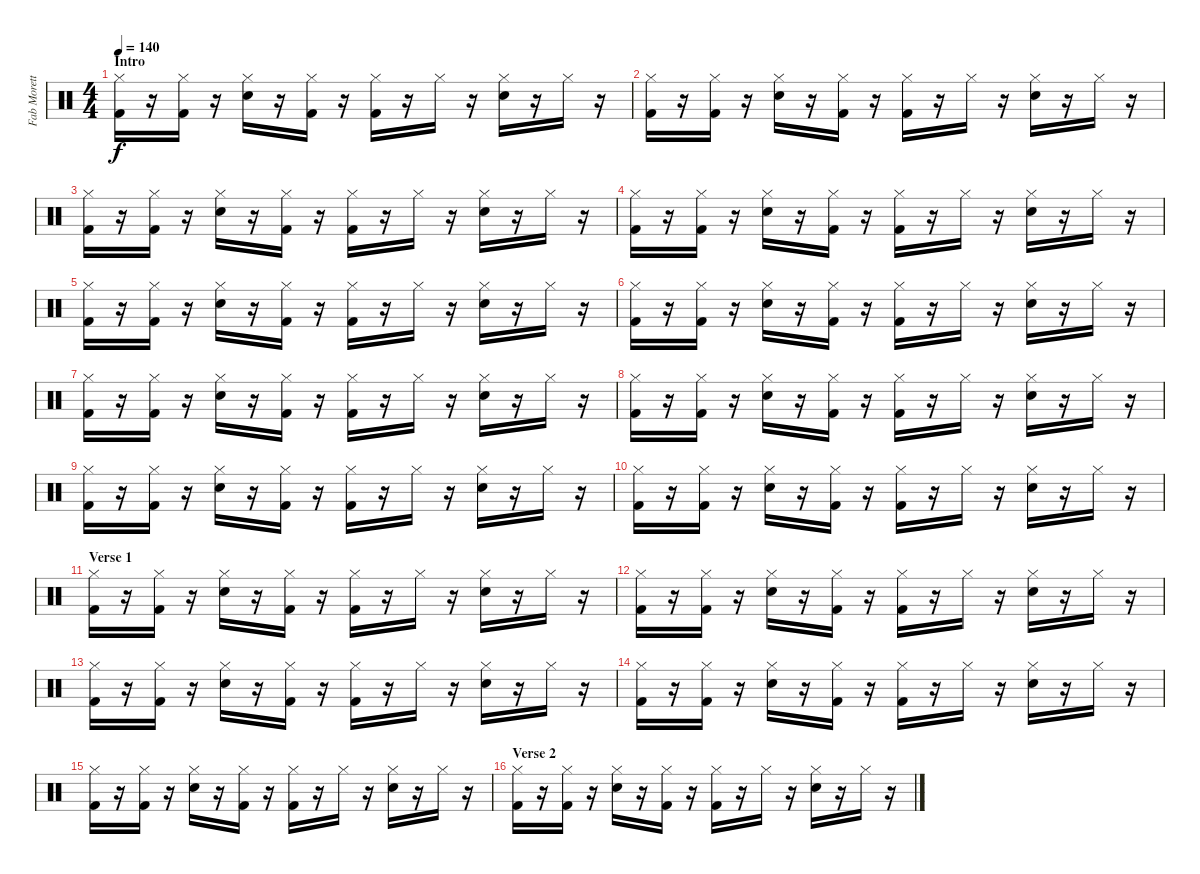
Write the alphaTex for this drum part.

\track ("Fab Moretti - Drums" "Fab Morett") {instrument percussion}
\staff {score}
\articulation defaults
\ts (4 4)
\section ("" "Intro")
\tempo 140
\clef neutral
\ks c
("Hi-Hat (closed)" "Kick (hit) 2").16{dy f} r.16 ("Hi-Hat (closed)" "Kick (hit) 2").16 r.16 ("Hi-Hat (closed)" "Snare (hit) 2").16 r.16 ("Hi-Hat (closed)" "Kick (hit) 2").16 r.16 ("Hi-Hat (closed)" "Kick (hit) 2").16 r.16 "Hi-Hat (closed)".16 r.16 ("Hi-Hat (closed)" "Snare (hit) 2").16 r.16 "Hi-Hat (closed)".16 r.16 |
("Hi-Hat (closed)" "Kick (hit) 2").16 r.16 ("Hi-Hat (closed)" "Kick (hit) 2").16 r.16 ("Hi-Hat (closed)" "Snare (hit) 2").16 r.16 ("Hi-Hat (closed)" "Kick (hit) 2").16 r.16 ("Hi-Hat (closed)" "Kick (hit) 2").16 r.16 "Hi-Hat (closed)".16 r.16 ("Hi-Hat (closed)" "Snare (hit) 2").16 r.16 "Hi-Hat (closed)".16 r.16 |
("Hi-Hat (closed)" "Kick (hit) 2").16 r.16 ("Hi-Hat (closed)" "Kick (hit) 2").16 r.16 ("Hi-Hat (closed)" "Snare (hit) 2").16 r.16 ("Hi-Hat (closed)" "Kick (hit) 2").16 r.16 ("Hi-Hat (closed)" "Kick (hit) 2").16 r.16 "Hi-Hat (closed)".16 r.16 ("Hi-Hat (closed)" "Snare (hit) 2").16 r.16 "Hi-Hat (closed)".16 r.16 |
("Hi-Hat (closed)" "Kick (hit) 2").16 r.16 ("Hi-Hat (closed)" "Kick (hit) 2").16 r.16 ("Hi-Hat (closed)" "Snare (hit) 2").16 r.16 ("Hi-Hat (closed)" "Kick (hit) 2").16 r.16 ("Hi-Hat (closed)" "Kick (hit) 2").16 r.16 "Hi-Hat (closed)".16 r.16 ("Hi-Hat (closed)" "Snare (hit) 2").16 r.16 "Hi-Hat (closed)".16 r.16 |
("Hi-Hat (closed)" "Kick (hit) 2").16 r.16 ("Hi-Hat (closed)" "Kick (hit) 2").16 r.16 ("Hi-Hat (closed)" "Snare (hit) 2").16 r.16 ("Hi-Hat (closed)" "Kick (hit) 2").16 r.16 ("Hi-Hat (closed)" "Kick (hit) 2").16 r.16 "Hi-Hat (closed)".16 r.16 ("Hi-Hat (closed)" "Snare (hit) 2").16 r.16 "Hi-Hat (closed)".16 r.16 |
("Hi-Hat (closed)" "Kick (hit) 2").16 r.16 ("Hi-Hat (closed)" "Kick (hit) 2").16 r.16 ("Hi-Hat (closed)" "Snare (hit) 2").16 r.16 ("Hi-Hat (closed)" "Kick (hit) 2").16 r.16 ("Hi-Hat (closed)" "Kick (hit) 2").16 r.16 "Hi-Hat (closed)".16 r.16 ("Hi-Hat (closed)" "Snare (hit) 2").16 r.16 "Hi-Hat (closed)".16 r.16 |
("Hi-Hat (closed)" "Kick (hit) 2").16 r.16 ("Hi-Hat (closed)" "Kick (hit) 2").16 r.16 ("Hi-Hat (closed)" "Snare (hit) 2").16 r.16 ("Hi-Hat (closed)" "Kick (hit) 2").16 r.16 ("Hi-Hat (closed)" "Kick (hit) 2").16 r.16 "Hi-Hat (closed)".16 r.16 ("Hi-Hat (closed)" "Snare (hit) 2").16 r.16 "Hi-Hat (closed)".16 r.16 |
("Hi-Hat (closed)" "Kick (hit) 2").16 r.16 ("Hi-Hat (closed)" "Kick (hit) 2").16 r.16 ("Hi-Hat (closed)" "Snare (hit) 2").16 r.16 ("Hi-Hat (closed)" "Kick (hit) 2").16 r.16 ("Hi-Hat (closed)" "Kick (hit) 2").16 r.16 "Hi-Hat (closed)".16 r.16 ("Hi-Hat (closed)" "Snare (hit) 2").16 r.16 "Hi-Hat (closed)".16 r.16 |
("Hi-Hat (closed)" "Kick (hit) 2").16 r.16 ("Hi-Hat (closed)" "Kick (hit) 2").16 r.16 ("Hi-Hat (closed)" "Snare (hit) 2").16 r.16 ("Hi-Hat (closed)" "Kick (hit) 2").16 r.16 ("Hi-Hat (closed)" "Kick (hit) 2").16 r.16 "Hi-Hat (closed)".16 r.16 ("Hi-Hat (closed)" "Snare (hit) 2").16 r.16 "Hi-Hat (closed)".16 r.16 |
("Hi-Hat (closed)" "Kick (hit) 2").16 r.16 ("Hi-Hat (closed)" "Kick (hit) 2").16 r.16 ("Hi-Hat (closed)" "Snare (hit) 2").16 r.16 ("Hi-Hat (closed)" "Kick (hit) 2").16 r.16 ("Hi-Hat (closed)" "Kick (hit) 2").16 r.16 "Hi-Hat (closed)".16 r.16 ("Hi-Hat (closed)" "Snare (hit) 2").16 r.16 "Hi-Hat (closed)".16 r.16 |
\section ("" "Verse 1")
("Hi-Hat (closed)" "Kick (hit) 2").16 r.16 ("Hi-Hat (closed)" "Kick (hit) 2").16 r.16 ("Hi-Hat (closed)" "Snare (hit) 2").16 r.16 ("Hi-Hat (closed)" "Kick (hit) 2").16 r.16 ("Hi-Hat (closed)" "Kick (hit) 2").16 r.16 "Hi-Hat (closed)".16 r.16 ("Hi-Hat (closed)" "Snare (hit) 2").16 r.16 "Hi-Hat (closed)".16 r.16 |
("Hi-Hat (closed)" "Kick (hit) 2").16 r.16 ("Hi-Hat (closed)" "Kick (hit) 2").16 r.16 ("Hi-Hat (closed)" "Snare (hit) 2").16 r.16 ("Hi-Hat (closed)" "Kick (hit) 2").16 r.16 ("Hi-Hat (closed)" "Kick (hit) 2").16 r.16 "Hi-Hat (closed)".16 r.16 ("Hi-Hat (closed)" "Snare (hit) 2").16 r.16 "Hi-Hat (closed)".16 r.16 |
("Hi-Hat (closed)" "Kick (hit) 2").16 r.16 ("Hi-Hat (closed)" "Kick (hit) 2").16 r.16 ("Hi-Hat (closed)" "Snare (hit) 2").16 r.16 ("Hi-Hat (closed)" "Kick (hit) 2").16 r.16 ("Hi-Hat (closed)" "Kick (hit) 2").16 r.16 "Hi-Hat (closed)".16 r.16 ("Hi-Hat (closed)" "Snare (hit) 2").16 r.16 "Hi-Hat (closed)".16 r.16 |
("Hi-Hat (closed)" "Kick (hit) 2").16 r.16 ("Hi-Hat (closed)" "Kick (hit) 2").16 r.16 ("Hi-Hat (closed)" "Snare (hit) 2").16 r.16 ("Hi-Hat (closed)" "Kick (hit) 2").16 r.16 ("Hi-Hat (closed)" "Kick (hit) 2").16 r.16 "Hi-Hat (closed)".16 r.16 ("Hi-Hat (closed)" "Snare (hit) 2").16 r.16 "Hi-Hat (closed)".16 r.16 |
("Hi-Hat (closed)" "Kick (hit) 2").16 r.16 ("Hi-Hat (closed)" "Kick (hit) 2").16 r.16 ("Hi-Hat (closed)" "Snare (hit) 2").16 r.16 ("Hi-Hat (closed)" "Kick (hit) 2").16 r.16 ("Hi-Hat (closed)" "Kick (hit) 2").16 r.16 "Hi-Hat (closed)".16 r.16 ("Hi-Hat (closed)" "Snare (hit) 2").16 r.16 "Hi-Hat (closed)".16 r.16 |
\section ("" "Verse 2")
("Hi-Hat (closed)" "Kick (hit) 2").16 r.16 ("Hi-Hat (closed)" "Kick (hit) 2").16 r.16 ("Hi-Hat (closed)" "Snare (hit) 2").16 r.16 ("Hi-Hat (closed)" "Kick (hit) 2").16 r.16 ("Hi-Hat (closed)" "Kick (hit) 2").16 r.16 "Hi-Hat (closed)".16 r.16 ("Hi-Hat (closed)" "Snare (hit) 2").16 r.16 "Hi-Hat (closed)".16 r.16
